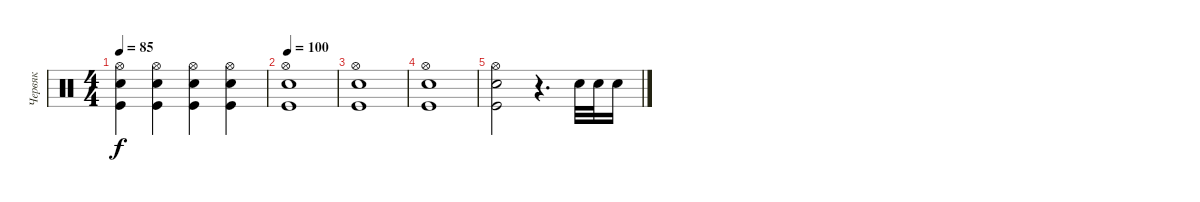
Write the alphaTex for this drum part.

\track ("Червяк" "Червяк") {instrument percussion}
\staff {score}
\articulation defaults
\ts (4 4)
\tempo 85
\clef neutral
\ks c
("Hi-Hat (open)" "Electric Snare (hit)" "Kick (hit)").4{dy f} ("Hi-Hat (open)" "Electric Snare (hit)" "Kick (hit)").4 ("Hi-Hat (open)" "Electric Snare (hit)" "Kick (hit)").4 ("Hi-Hat (open)" "Electric Snare (hit)" "Kick (hit)").4 |
\tempo 100
("Hi-Hat (open)" "Electric Snare (hit)" "Kick (hit)").1 |
("Hi-Hat (open)" "Electric Snare (hit)" "Kick (hit)").1 |
("Hi-Hat (open)" "Electric Snare (hit)" "Kick (hit)").1 |
("Hi-Hat (open)" "Electric Snare (hit)" "Kick (hit)").2 r.4{d} "Snare (hit) 2".32 "Snare (hit) 2".32 "Snare (hit) 2".16
